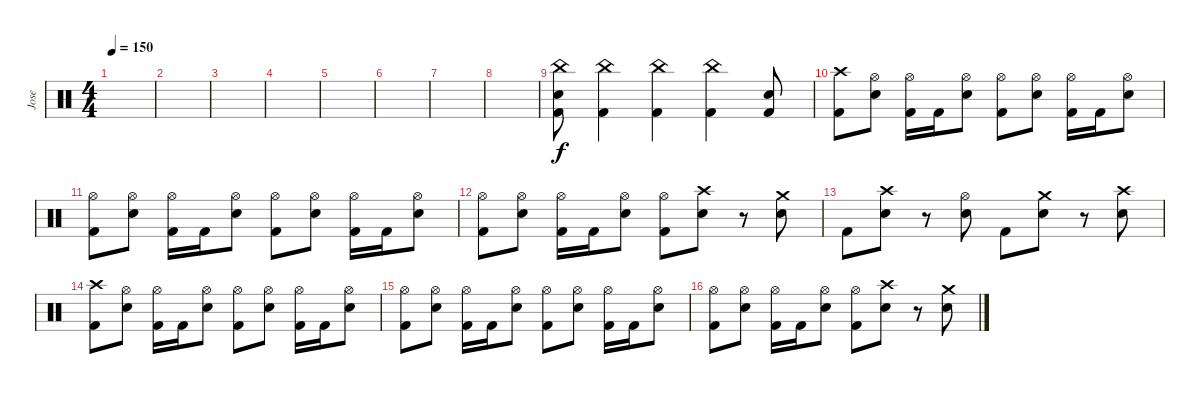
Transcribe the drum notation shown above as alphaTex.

\track ("Jose" "Jose") {instrument percussion}
\staff {score}
\articulation defaults
\ts (4 4)
\tempo 150
\clef neutral
\ks c
|
|
|
|
|
|
|
|
("China (hit)" "Snare (hit) 2" "Kick (hit) 2").8 ("China (hit)" "Kick (hit) 2").4 ("China (hit)" "Kick (hit) 2").4 ("China (hit)" "Kick (hit) 2").4 ("Snare (hit) 2" "Kick (hit) 2").8 |
("Crash high (hit)" "Kick (hit) 2").8 ("Hi-Hat (open)" "Snare (hit) 2").8 ("Hi-Hat (open)" "Kick (hit) 2").16 "Kick (hit) 2".16 ("Hi-Hat (open)" "Snare (hit) 2").8 ("Hi-Hat (open)" "Kick (hit) 2").8 ("Hi-Hat (open)" "Snare (hit) 2").8 ("Hi-Hat (open)" "Kick (hit) 2").16 "Kick (hit) 2".16 ("Hi-Hat (open)" "Snare (hit) 2").8 |
("Hi-Hat (open)" "Kick (hit) 2").8 ("Hi-Hat (open)" "Snare (hit) 2").8 ("Hi-Hat (open)" "Kick (hit) 2").16 "Kick (hit) 2".16 ("Hi-Hat (open)" "Snare (hit) 2").8 ("Hi-Hat (open)" "Kick (hit) 2").8 ("Hi-Hat (open)" "Snare (hit) 2").8 ("Hi-Hat (open)" "Kick (hit) 2").16 "Kick (hit) 2".16 ("Hi-Hat (open)" "Snare (hit) 2").8 |
("Hi-Hat (open)" "Kick (hit) 2").8 ("Hi-Hat (open)" "Snare (hit) 2").8 ("Hi-Hat (open)" "Kick (hit) 2").16 "Kick (hit) 2".16 ("Hi-Hat (open)" "Snare (hit) 2").8 ("Hi-Hat (open)" "Kick (hit) 2").8 ("Crash high (hit)" "Snare (hit) 2").8 r.8 ("Crash medium (hit)" "Snare (hit) 2").8 |
"Kick (hit) 2".8 ("Crash high (hit)" "Snare (hit) 2").8 r.8 ("Hi-Hat (open)" "Snare (hit) 2").8 "Kick (hit) 2".8 ("Crash medium (hit)" "Snare (hit) 2").8 r.8 ("Crash high (hit)" "Snare (hit) 2").8 |
("Crash high (hit)" "Kick (hit) 2").8 ("Hi-Hat (open)" "Snare (hit) 2").8 ("Hi-Hat (open)" "Kick (hit) 2").16 "Kick (hit) 2".16 ("Hi-Hat (open)" "Snare (hit) 2").8 ("Hi-Hat (open)" "Kick (hit) 2").8 ("Hi-Hat (open)" "Snare (hit) 2").8 ("Hi-Hat (open)" "Kick (hit) 2").16 "Kick (hit) 2".16 ("Hi-Hat (open)" "Snare (hit) 2").8 |
("Hi-Hat (open)" "Kick (hit) 2").8 ("Hi-Hat (open)" "Snare (hit) 2").8 ("Hi-Hat (open)" "Kick (hit) 2").16 "Kick (hit) 2".16 ("Hi-Hat (open)" "Snare (hit) 2").8 ("Hi-Hat (open)" "Kick (hit) 2").8 ("Hi-Hat (open)" "Snare (hit) 2").8 ("Hi-Hat (open)" "Kick (hit) 2").16 "Kick (hit) 2".16 ("Hi-Hat (open)" "Snare (hit) 2").8 |
("Hi-Hat (open)" "Kick (hit) 2").8 ("Hi-Hat (open)" "Snare (hit) 2").8 ("Hi-Hat (open)" "Kick (hit) 2").16 "Kick (hit) 2".16 ("Hi-Hat (open)" "Snare (hit) 2").8 ("Hi-Hat (open)" "Kick (hit) 2").8 ("Crash high (hit)" "Snare (hit) 2").8 r.8 ("Crash medium (hit)" "Snare (hit) 2").8
